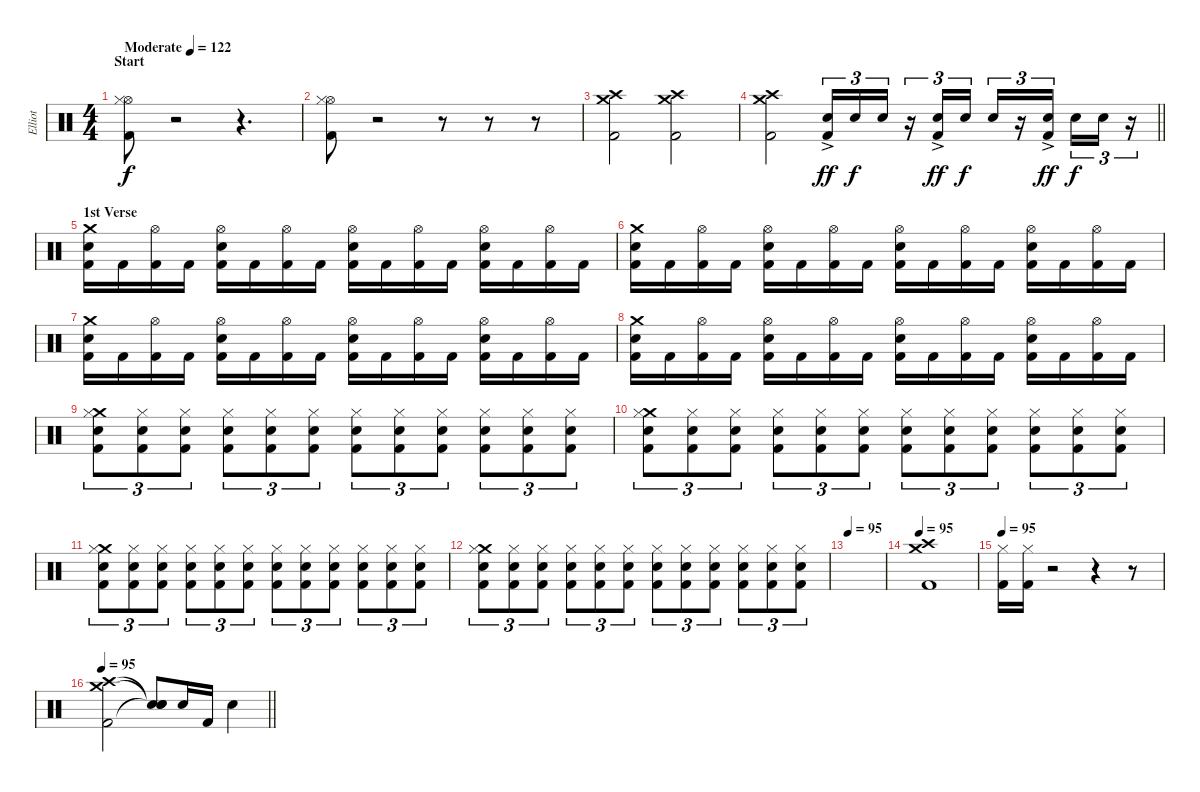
\track ("Elliot" "Elliot") {instrument percussion}
\staff {score}
\articulation defaults
\ts (4 4)
\section ("" "Start")
\tempo (122 "Moderate")
\clef neutral
\ks c
("Hi-Hat (open)" "Hi-Hat (closed)" "Kick (hit) 2").8{dy f} r.2 r.4{d} |
("Hi-Hat (open)" "Hi-Hat (closed)" "Kick (hit) 2").8 r.2 r.8 r.8 r.8 |
("Crash medium (hit)" "Crash high (hit)" "Kick (hit) 2").2 ("Crash medium (hit)" "Crash high (hit)" "Kick (hit) 2").2 |
\barLineRight lightlight
("Crash medium (hit)" "Crash high (hit)" "Kick (hit) 2").2 ("Electric Snare (hit)"{ac} "Kick (hit) 2").16{tu (3 2) dy ff} "Electric Snare (hit)".16{tu (3 2) dy f} "Electric Snare (hit)".16{tu (3 2)} r.16{tu (3 2)} ("Electric Snare (hit)"{ac} "Kick (hit) 2").16{tu (3 2) dy ff} "Electric Snare (hit)".16{tu (3 2) dy f} "Electric Snare (hit)".16{tu (3 2)} r.16{tu (3 2)} ("Electric Snare (hit)"{ac} "Kick (hit) 2").16{tu (3 2) dy ff beam splitsecondary} "Electric Snare (hit)".16{tu (3 2) dy f} "Electric Snare (hit)".16{tu (3 2)} r.16{tu (3 2)} |
\section ("" "1st Verse")
("Crash medium (hit)" "Electric Snare (hit)" "Kick (hit) 2").16 "Kick (hit) 2".16 ("Hi-Hat (open)" "Kick (hit) 2").16 "Kick (hit) 2".16 ("Hi-Hat (open)" "Electric Snare (hit)" "Kick (hit) 2").16 "Kick (hit) 2".16 ("Hi-Hat (open)" "Kick (hit) 2").16 "Kick (hit) 2".16 ("Hi-Hat (open)" "Electric Snare (hit)" "Kick (hit) 2").16 "Kick (hit) 2".16 ("Hi-Hat (open)" "Kick (hit) 2").16 "Kick (hit) 2".16 ("Hi-Hat (open)" "Electric Snare (hit)" "Kick (hit) 2").16 "Kick (hit) 2".16 ("Hi-Hat (open)" "Kick (hit) 2").16 "Kick (hit) 2".16 |
("Crash medium (hit)" "Electric Snare (hit)" "Kick (hit) 2").16 "Kick (hit) 2".16 ("Hi-Hat (open)" "Kick (hit) 2").16 "Kick (hit) 2".16 ("Hi-Hat (open)" "Electric Snare (hit)" "Kick (hit) 2").16 "Kick (hit) 2".16 ("Hi-Hat (open)" "Kick (hit) 2").16 "Kick (hit) 2".16 ("Hi-Hat (open)" "Electric Snare (hit)" "Kick (hit) 2").16 "Kick (hit) 2".16 ("Hi-Hat (open)" "Kick (hit) 2").16 "Kick (hit) 2".16 ("Hi-Hat (open)" "Electric Snare (hit)" "Kick (hit) 2").16 "Kick (hit) 2".16 ("Hi-Hat (open)" "Kick (hit) 2").16 "Kick (hit) 2".16 |
("Crash medium (hit)" "Electric Snare (hit)" "Kick (hit) 2").16 "Kick (hit) 2".16 ("Hi-Hat (open)" "Kick (hit) 2").16 "Kick (hit) 2".16 ("Hi-Hat (open)" "Electric Snare (hit)" "Kick (hit) 2").16 "Kick (hit) 2".16 ("Hi-Hat (open)" "Kick (hit) 2").16 "Kick (hit) 2".16 ("Hi-Hat (open)" "Electric Snare (hit)" "Kick (hit) 2").16 "Kick (hit) 2".16 ("Hi-Hat (open)" "Kick (hit) 2").16 "Kick (hit) 2".16 ("Hi-Hat (open)" "Electric Snare (hit)" "Kick (hit) 2").16 "Kick (hit) 2".16 ("Hi-Hat (open)" "Kick (hit) 2").16 "Kick (hit) 2".16 |
("Crash medium (hit)" "Electric Snare (hit)" "Kick (hit) 2").16 "Kick (hit) 2".16 ("Hi-Hat (open)" "Kick (hit) 2").16 "Kick (hit) 2".16 ("Hi-Hat (open)" "Electric Snare (hit)" "Kick (hit) 2").16 "Kick (hit) 2".16 ("Hi-Hat (open)" "Kick (hit) 2").16 "Kick (hit) 2".16 ("Hi-Hat (open)" "Electric Snare (hit)" "Kick (hit) 2").16 "Kick (hit) 2".16 ("Hi-Hat (open)" "Kick (hit) 2").16 "Kick (hit) 2".16 ("Hi-Hat (open)" "Electric Snare (hit)" "Kick (hit) 2").16 "Kick (hit) 2".16 ("Hi-Hat (open)" "Kick (hit) 2").16 "Kick (hit) 2".16 |
("Crash medium (hit)" "Hi-Hat (closed)" "Electric Snare (hit)" "Kick (hit) 2").8{tu (3 2)} ("Hi-Hat (closed)" "Electric Snare (hit)" "Kick (hit) 2").8{tu (3 2)} ("Hi-Hat (closed)" "Electric Snare (hit)" "Kick (hit) 2").8{tu (3 2)} ("Hi-Hat (closed)" "Electric Snare (hit)" "Kick (hit) 2").8{tu (3 2)} ("Hi-Hat (closed)" "Electric Snare (hit)" "Kick (hit) 2").8{tu (3 2)} ("Hi-Hat (closed)" "Electric Snare (hit)" "Kick (hit) 2").8{tu (3 2)} ("Hi-Hat (closed)" "Electric Snare (hit)" "Kick (hit) 2").8{tu (3 2)} ("Hi-Hat (closed)" "Electric Snare (hit)" "Kick (hit) 2").8{tu (3 2)} ("Hi-Hat (closed)" "Electric Snare (hit)" "Kick (hit) 2").8{tu (3 2)} ("Hi-Hat (closed)" "Electric Snare (hit)" "Kick (hit) 2").8{tu (3 2)} ("Hi-Hat (closed)" "Electric Snare (hit)" "Kick (hit) 2").8{tu (3 2)} ("Hi-Hat (closed)" "Electric Snare (hit)" "Kick (hit) 2").8{tu (3 2)} |
("Crash medium (hit)" "Hi-Hat (closed)" "Electric Snare (hit)" "Kick (hit) 2").8{tu (3 2)} ("Hi-Hat (closed)" "Electric Snare (hit)" "Kick (hit) 2").8{tu (3 2)} ("Hi-Hat (closed)" "Electric Snare (hit)" "Kick (hit) 2").8{tu (3 2)} ("Hi-Hat (closed)" "Electric Snare (hit)" "Kick (hit) 2").8{tu (3 2)} ("Hi-Hat (closed)" "Electric Snare (hit)" "Kick (hit) 2").8{tu (3 2)} ("Hi-Hat (closed)" "Electric Snare (hit)" "Kick (hit) 2").8{tu (3 2)} ("Hi-Hat (closed)" "Electric Snare (hit)" "Kick (hit) 2").8{tu (3 2)} ("Hi-Hat (closed)" "Electric Snare (hit)" "Kick (hit) 2").8{tu (3 2)} ("Hi-Hat (closed)" "Electric Snare (hit)" "Kick (hit) 2").8{tu (3 2)} ("Hi-Hat (closed)" "Electric Snare (hit)" "Kick (hit) 2").8{tu (3 2)} ("Hi-Hat (closed)" "Electric Snare (hit)" "Kick (hit) 2").8{tu (3 2)} ("Hi-Hat (closed)" "Electric Snare (hit)" "Kick (hit) 2").8{tu (3 2)} |
("Crash medium (hit)" "Hi-Hat (closed)" "Electric Snare (hit)" "Kick (hit) 2").8{tu (3 2)} ("Hi-Hat (closed)" "Electric Snare (hit)" "Kick (hit) 2").8{tu (3 2)} ("Hi-Hat (closed)" "Electric Snare (hit)" "Kick (hit) 2").8{tu (3 2)} ("Hi-Hat (closed)" "Electric Snare (hit)" "Kick (hit) 2").8{tu (3 2)} ("Hi-Hat (closed)" "Electric Snare (hit)" "Kick (hit) 2").8{tu (3 2)} ("Hi-Hat (closed)" "Electric Snare (hit)" "Kick (hit) 2").8{tu (3 2)} ("Hi-Hat (closed)" "Electric Snare (hit)" "Kick (hit) 2").8{tu (3 2)} ("Hi-Hat (closed)" "Electric Snare (hit)" "Kick (hit) 2").8{tu (3 2)} ("Hi-Hat (closed)" "Electric Snare (hit)" "Kick (hit) 2").8{tu (3 2)} ("Hi-Hat (closed)" "Electric Snare (hit)" "Kick (hit) 2").8{tu (3 2)} ("Hi-Hat (closed)" "Electric Snare (hit)" "Kick (hit) 2").8{tu (3 2)} ("Hi-Hat (closed)" "Electric Snare (hit)" "Kick (hit) 2").8{tu (3 2)} |
("Crash medium (hit)" "Hi-Hat (closed)" "Electric Snare (hit)" "Kick (hit) 2").8{tu (3 2)} ("Hi-Hat (closed)" "Electric Snare (hit)" "Kick (hit) 2").8{tu (3 2)} ("Hi-Hat (closed)" "Electric Snare (hit)" "Kick (hit) 2").8{tu (3 2)} ("Hi-Hat (closed)" "Electric Snare (hit)" "Kick (hit) 2").8{tu (3 2)} ("Hi-Hat (closed)" "Electric Snare (hit)" "Kick (hit) 2").8{tu (3 2)} ("Hi-Hat (closed)" "Electric Snare (hit)" "Kick (hit) 2").8{tu (3 2)} ("Hi-Hat (closed)" "Electric Snare (hit)" "Kick (hit) 2").8{tu (3 2)} ("Hi-Hat (closed)" "Electric Snare (hit)" "Kick (hit) 2").8{tu (3 2)} ("Hi-Hat (closed)" "Electric Snare (hit)" "Kick (hit) 2").8{tu (3 2)} ("Hi-Hat (closed)" "Electric Snare (hit)" "Kick (hit) 2").8{tu (3 2)} ("Hi-Hat (closed)" "Electric Snare (hit)" "Kick (hit) 2").8{tu (3 2)} ("Hi-Hat (closed)" "Electric Snare (hit)" "Kick (hit) 2").8{tu (3 2)} |
\tempo 95
|
\tempo 95
("Crash medium (hit)" "Crash high (hit)" "Kick (hit) 2").1 |
\tempo 95
("Hi-Hat (closed)" "Kick (hit) 2").16 ("Hi-Hat (closed)" "Kick (hit) 2").16 r.2 r.4 r.8 |
\tempo 95
\barLineRight lightlight
("Crash medium (hit)" "Crash high (hit)" "Kick (hit) 2").2 ("Snare (hit)"{t} "Snare (hit)"{t} "Snare (hit)"{t}).8 "Electric Snare (hit)".16 "Kick (hit) 2".16 "Electric Snare (hit)".4
